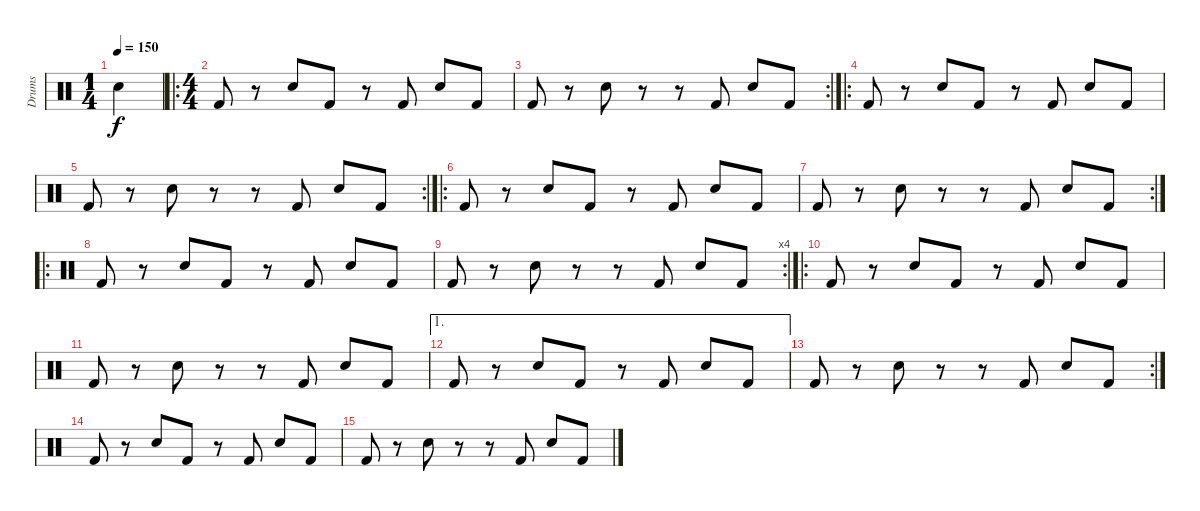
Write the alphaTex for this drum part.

\track ("Drums" "Drums") {instrument percussion}
\staff {score}
\articulation defaults
\ts (1 4)
\tempo 150
\clef neutral
\ks c "Electric Snare (hit)".4{dy f}
|
\ro
\ts (4 4)
"Kick (hit) 2".8 r.8 "Electric Snare (hit)".8 "Kick (hit) 2".8 r.8 "Kick (hit) 2".8 "Electric Snare (hit)".8 "Kick (hit) 2".8 |
\rc 2 "Kick (hit) 2".8
r.8 "Electric Snare (hit)".8 r.8 r.8 "Kick (hit) 2".8 "Electric Snare (hit)".8 "Kick (hit) 2".8 |
\ro "Kick (hit) 2".8
r.8 "Electric Snare (hit)".8 "Kick (hit) 2".8 r.8 "Kick (hit) 2".8 "Electric Snare (hit)".8 "Kick (hit) 2".8 |
\rc 2 "Kick (hit) 2".8
r.8 "Electric Snare (hit)".8 r.8 r.8 "Kick (hit) 2".8 "Electric Snare (hit)".8 "Kick (hit) 2".8 |
\ro "Kick (hit) 2".8
r.8 "Electric Snare (hit)".8 "Kick (hit) 2".8 r.8 "Kick (hit) 2".8 "Electric Snare (hit)".8 "Kick (hit) 2".8 |
\rc 2 "Kick (hit) 2".8
r.8 "Electric Snare (hit)".8 r.8 r.8 "Kick (hit) 2".8 "Electric Snare (hit)".8 "Kick (hit) 2".8 |
\ro "Kick (hit) 2".8
r.8 "Electric Snare (hit)".8 "Kick (hit) 2".8 r.8 "Kick (hit) 2".8 "Electric Snare (hit)".8 "Kick (hit) 2".8 |
\rc 4 "Kick (hit) 2".8
r.8 "Electric Snare (hit)".8 r.8 r.8 "Kick (hit) 2".8 "Electric Snare (hit)".8 "Kick (hit) 2".8 |
\ro "Kick (hit) 2".8
r.8 "Electric Snare (hit)".8 "Kick (hit) 2".8 r.8 "Kick (hit) 2".8 "Electric Snare (hit)".8 "Kick (hit) 2".8 |
"Kick (hit) 2".8 r.8 "Electric Snare (hit)".8 r.8 r.8 "Kick (hit) 2".8 "Electric Snare (hit)".8 "Kick (hit) 2".8 |
\ae 1 "Kick (hit) 2".8
r.8 "Electric Snare (hit)".8 "Kick (hit) 2".8 r.8 "Kick (hit) 2".8 "Electric Snare (hit)".8 "Kick (hit) 2".8 |
\rc 2 "Kick (hit) 2".8
r.8 "Electric Snare (hit)".8 r.8 r.8 "Kick (hit) 2".8 "Electric Snare (hit)".8 "Kick (hit) 2".8 |
"Kick (hit) 2".8 r.8 "Electric Snare (hit)".8 "Kick (hit) 2".8 r.8 "Kick (hit) 2".8 "Electric Snare (hit)".8 "Kick (hit) 2".8 |
"Kick (hit) 2".8 r.8 "Electric Snare (hit)".8 r.8 r.8 "Kick (hit) 2".8 "Electric Snare (hit)".8 "Kick (hit) 2".8
